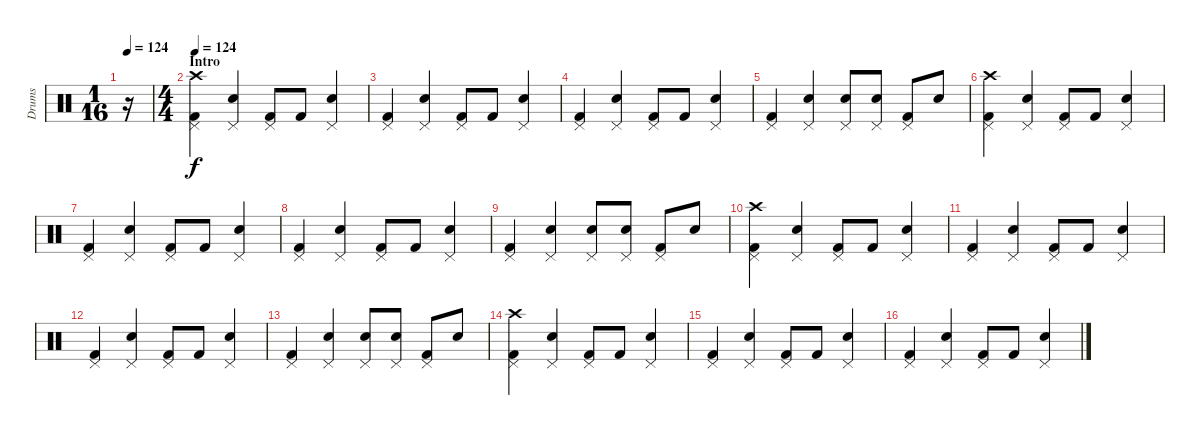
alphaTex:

\track ("Drums" "Drums") {instrument percussion}
\staff {score}
\articulation defaults
\ts (1 16)
\tempo 124
\clef neutral
\ks c
r.16{dy f} |
\ts (4 4)
\section ("" "Intro")
\tempo 124
("Kick (hit) 2" "Pedal Hi-Hat (hit)" "Crash high (hit)").4 ("Snare (hit) 2" "Pedal Hi-Hat (hit)").4 ("Kick (hit) 2" "Pedal Hi-Hat (hit)").8 "Kick (hit) 2".8 ("Snare (hit) 2" "Pedal Hi-Hat (hit)").4 |
("Kick (hit) 2" "Pedal Hi-Hat (hit)").4 ("Snare (hit) 2" "Pedal Hi-Hat (hit)").4 ("Kick (hit) 2" "Pedal Hi-Hat (hit)").8 "Kick (hit) 2".8 ("Snare (hit) 2" "Pedal Hi-Hat (hit)").4 |
("Kick (hit) 2" "Pedal Hi-Hat (hit)").4 ("Snare (hit) 2" "Pedal Hi-Hat (hit)").4 ("Kick (hit) 2" "Pedal Hi-Hat (hit)").8 "Kick (hit) 2".8 ("Snare (hit) 2" "Pedal Hi-Hat (hit)").4 |
("Kick (hit) 2" "Pedal Hi-Hat (hit)").4 ("Snare (hit) 2" "Pedal Hi-Hat (hit)").4 ("Snare (hit) 2" "Pedal Hi-Hat (hit)").8 ("Snare (hit) 2" "Pedal Hi-Hat (hit)").8 ("Kick (hit) 2" "Pedal Hi-Hat (hit)").8 "Snare (hit) 2".8 |
("Kick (hit) 2" "Pedal Hi-Hat (hit)" "Crash high (hit)").4 ("Snare (hit) 2" "Pedal Hi-Hat (hit)").4 ("Kick (hit) 2" "Pedal Hi-Hat (hit)").8 "Kick (hit) 2".8 ("Snare (hit) 2" "Pedal Hi-Hat (hit)").4 |
("Kick (hit) 2" "Pedal Hi-Hat (hit)").4 ("Snare (hit) 2" "Pedal Hi-Hat (hit)").4 ("Kick (hit) 2" "Pedal Hi-Hat (hit)").8 "Kick (hit) 2".8 ("Snare (hit) 2" "Pedal Hi-Hat (hit)").4 |
("Kick (hit) 2" "Pedal Hi-Hat (hit)").4 ("Snare (hit) 2" "Pedal Hi-Hat (hit)").4 ("Kick (hit) 2" "Pedal Hi-Hat (hit)").8 "Kick (hit) 2".8 ("Snare (hit) 2" "Pedal Hi-Hat (hit)").4 |
("Kick (hit) 2" "Pedal Hi-Hat (hit)").4 ("Snare (hit) 2" "Pedal Hi-Hat (hit)").4 ("Snare (hit) 2" "Pedal Hi-Hat (hit)").8 ("Snare (hit) 2" "Pedal Hi-Hat (hit)").8 ("Kick (hit) 2" "Pedal Hi-Hat (hit)").8 "Snare (hit) 2".8 |
("Kick (hit) 2" "Pedal Hi-Hat (hit)" "Crash high (hit)").4 ("Snare (hit) 2" "Pedal Hi-Hat (hit)").4 ("Kick (hit) 2" "Pedal Hi-Hat (hit)").8 "Kick (hit) 2".8 ("Snare (hit) 2" "Pedal Hi-Hat (hit)").4 |
("Kick (hit) 2" "Pedal Hi-Hat (hit)").4 ("Snare (hit) 2" "Pedal Hi-Hat (hit)").4 ("Kick (hit) 2" "Pedal Hi-Hat (hit)").8 "Kick (hit) 2".8 ("Snare (hit) 2" "Pedal Hi-Hat (hit)").4 |
("Kick (hit) 2" "Pedal Hi-Hat (hit)").4 ("Snare (hit) 2" "Pedal Hi-Hat (hit)").4 ("Kick (hit) 2" "Pedal Hi-Hat (hit)").8 "Kick (hit) 2".8 ("Snare (hit) 2" "Pedal Hi-Hat (hit)").4 |
("Kick (hit) 2" "Pedal Hi-Hat (hit)").4 ("Snare (hit) 2" "Pedal Hi-Hat (hit)").4 ("Snare (hit) 2" "Pedal Hi-Hat (hit)").8 ("Snare (hit) 2" "Pedal Hi-Hat (hit)").8 ("Kick (hit) 2" "Pedal Hi-Hat (hit)").8 "Snare (hit) 2".8 |
("Kick (hit) 2" "Pedal Hi-Hat (hit)" "Crash high (hit)").4 ("Snare (hit) 2" "Pedal Hi-Hat (hit)").4 ("Kick (hit) 2" "Pedal Hi-Hat (hit)").8 "Kick (hit) 2".8 ("Snare (hit) 2" "Pedal Hi-Hat (hit)").4 |
("Kick (hit) 2" "Pedal Hi-Hat (hit)").4 ("Snare (hit) 2" "Pedal Hi-Hat (hit)").4 ("Kick (hit) 2" "Pedal Hi-Hat (hit)").8 "Kick (hit) 2".8 ("Snare (hit) 2" "Pedal Hi-Hat (hit)").4 |
("Kick (hit) 2" "Pedal Hi-Hat (hit)").4 ("Snare (hit) 2" "Pedal Hi-Hat (hit)").4 ("Kick (hit) 2" "Pedal Hi-Hat (hit)").8 "Kick (hit) 2".8 ("Snare (hit) 2" "Pedal Hi-Hat (hit)").4
